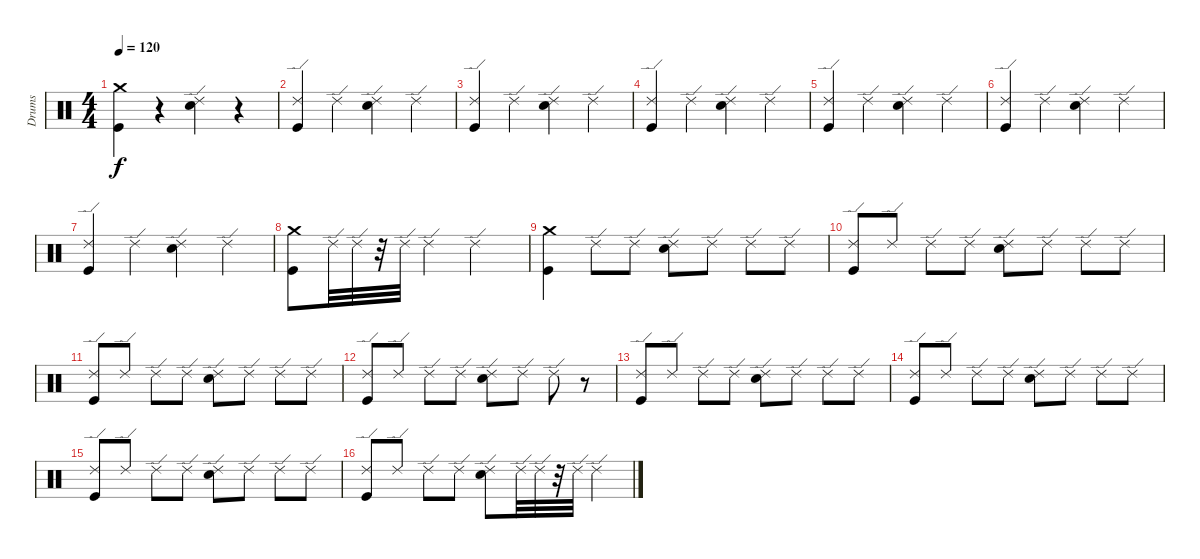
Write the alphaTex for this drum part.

\track ("Drums" "Drums") {instrument percussion}
\staff {score}
\articulation defaults
\ts (4 4)
\tempo 120
\clef neutral
\ks c
("Crash medium (hit)" "Kick (hit)").4{dy f} r.4 ("Ride (edge) 2" "Snare (hit) 2").4 r.4 |
("Ride (edge) 2" "Kick (hit)").4 "Ride (edge) 2".4 ("Ride (edge) 2" "Snare (hit) 2").4 "Ride (edge) 2".4 |
("Ride (edge) 2" "Kick (hit)").4 "Ride (edge) 2".4 ("Ride (edge) 2" "Snare (hit) 2").4 "Ride (edge) 2".4 |
("Ride (edge) 2" "Kick (hit)").4 "Ride (edge) 2".4 ("Ride (edge) 2" "Snare (hit) 2").4 "Ride (edge) 2".4 |
("Ride (edge) 2" "Kick (hit)").4 "Ride (edge) 2".4 ("Ride (edge) 2" "Snare (hit) 2").4 "Ride (edge) 2".4 |
("Ride (edge) 2" "Kick (hit)").4 "Ride (edge) 2".4 ("Ride (edge) 2" "Snare (hit) 2").4 "Ride (edge) 2".4 |
("Ride (edge) 2" "Kick (hit)").4 "Ride (edge) 2".4 ("Ride (edge) 2" "Snare (hit) 2").4 "Ride (edge) 2".4 |
("Crash medium (hit)" "Kick (hit)").8 "Ride (edge) 2".32 "Ride (edge) 2".32 r.32 "Ride (edge) 2".32 "Ride (edge) 2".4 "Ride (edge) 2".2 |
("Crash medium (hit)" "Kick (hit)").4 "Ride (edge) 2".8 "Ride (edge) 2".8 ("Ride (edge) 2" "Snare (hit) 2").8 "Ride (edge) 2".8 "Ride (edge) 2".8 "Ride (edge) 2".8 |
("Ride (edge) 2" "Kick (hit)").8 "Ride (edge) 2".8 "Ride (edge) 2".8 "Ride (edge) 2".8 ("Ride (edge) 2" "Snare (hit) 2").8 "Ride (edge) 2".8 "Ride (edge) 2".8 "Ride (edge) 2".8 |
("Kick (hit)" "Ride (edge) 2").8 "Ride (edge) 2".8 "Ride (edge) 2".8 "Ride (edge) 2".8 ("Snare (hit) 2" "Ride (edge) 2").8 "Ride (edge) 2".8 "Ride (edge) 2".8 "Ride (edge) 2".8 |
("Ride (edge) 2" "Kick (hit)").8 "Ride (edge) 2".8 "Ride (edge) 2".8 "Ride (edge) 2".8 ("Ride (edge) 2" "Snare (hit) 2").8 "Ride (edge) 2".8 "Ride (edge) 2".8 r.8 |
("Kick (hit)" "Ride (edge) 2").8 "Ride (edge) 2".8 "Ride (edge) 2".8 "Ride (edge) 2".8 ("Snare (hit) 2" "Ride (edge) 2").8 "Ride (edge) 2".8 "Ride (edge) 2".8 "Ride (edge) 2".8 |
("Kick (hit)" "Ride (edge) 2").8 "Ride (edge) 2".8 "Ride (edge) 2".8 "Ride (edge) 2".8 ("Snare (hit) 2" "Ride (edge) 2").8 "Ride (edge) 2".8 "Ride (edge) 2".8 "Ride (edge) 2".8 |
("Kick (hit)" "Ride (edge) 2").8 "Ride (edge) 2".8 "Ride (edge) 2".8 "Ride (edge) 2".8 ("Snare (hit) 2" "Ride (edge) 2").8 "Ride (edge) 2".8 "Ride (edge) 2".8 "Ride (edge) 2".8 |
("Ride (edge) 2" "Kick (hit)").8 "Ride (edge) 2".8 "Ride (edge) 2".8 "Ride (edge) 2".8 ("Ride (edge) 2" "Snare (hit) 2").8 "Ride (edge) 2".32 "Ride (edge) 2".32 r.32 "Ride (edge) 2".32 "Ride (edge) 2".4
